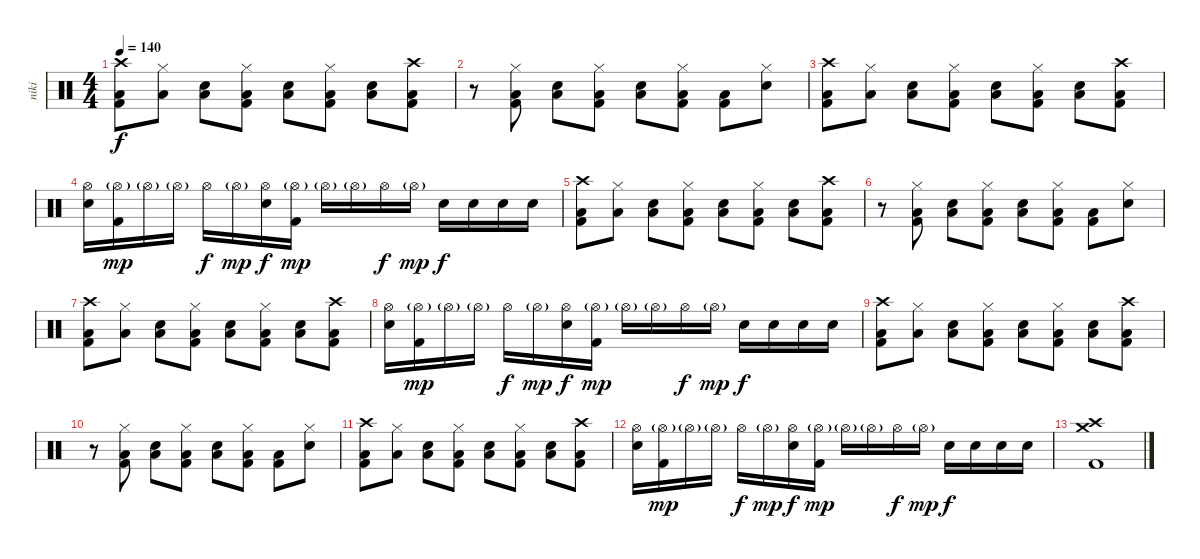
\track ("niki" "niki") {instrument percussion}
\staff {score}
\articulation defaults
\ts (4 4)
\tempo 140
\clef neutral
\ks c
("Crash high (hit)" "Low Floor Tom (hit)" "Kick (hit) 2").8{dy f} ("Hi-Hat (closed)" "Low Floor Tom (hit)").8 ("Low Floor Tom (hit)" "Snare (hit) 2").8 ("Hi-Hat (closed)" "Low Floor Tom (hit)" "Kick (hit) 2").8 ("Low Floor Tom (hit)" "Snare (hit) 2").8 ("Hi-Hat (closed)" "Low Floor Tom (hit)" "Kick (hit) 2").8 ("Low Floor Tom (hit)" "Snare (hit) 2").8 ("Crash high (hit)" "Low Floor Tom (hit)" "Kick (hit) 2").8 |
r.8 ("Hi-Hat (closed)" "Low Floor Tom (hit)" "Kick (hit) 2").8 ("Low Floor Tom (hit)" "Snare (hit) 2").8 ("Hi-Hat (closed)" "Low Floor Tom (hit)" "Kick (hit) 2").8 ("Low Floor Tom (hit)" "Snare (hit) 2").8 ("Hi-Hat (closed)" "Low Floor Tom (hit)" "Kick (hit) 2").8 ("Low Floor Tom (hit)" "Kick (hit) 2").8 ("Hi-Hat (closed)" "Snare (hit) 2").8 |
("Crash high (hit)" "Low Floor Tom (hit)" "Kick (hit) 2").8 ("Hi-Hat (closed)" "Low Floor Tom (hit)").8 ("Low Floor Tom (hit)" "Snare (hit) 2").8 ("Hi-Hat (closed)" "Low Floor Tom (hit)" "Kick (hit) 2").8 ("Low Floor Tom (hit)" "Snare (hit) 2").8 ("Hi-Hat (closed)" "Low Floor Tom (hit)" "Kick (hit) 2").8 ("Low Floor Tom (hit)" "Snare (hit) 2").8 ("Crash high (hit)" "Low Floor Tom (hit)" "Kick (hit) 2").8 |
("Hi-Hat (open)" "Snare (hit) 2").16 ("Hi-Hat (open)"{g} "Kick (hit) 2").16{dy mp} "Hi-Hat (open)"{g}.16 "Hi-Hat (open)"{g}.16 "Hi-Hat (open)".16{dy f} "Hi-Hat (open)"{g}.16{dy mp} ("Hi-Hat (open)" "Snare (hit) 2").16{dy f} ("Hi-Hat (open)"{g} "Kick (hit) 2").16{dy mp} "Hi-Hat (open)"{g}.16 "Hi-Hat (open)"{g}.16 "Hi-Hat (open)".16{dy f} "Hi-Hat (open)"{g}.16{dy mp} "Snare (hit) 2".16{dy f} "Snare (hit) 2".16 "Snare (hit) 2".16 "Snare (hit) 2".16 |
("Crash high (hit)" "Low Floor Tom (hit)" "Kick (hit) 2").8 ("Hi-Hat (closed)" "Low Floor Tom (hit)").8 ("Low Floor Tom (hit)" "Snare (hit) 2").8 ("Hi-Hat (closed)" "Low Floor Tom (hit)" "Kick (hit) 2").8 ("Low Floor Tom (hit)" "Snare (hit) 2").8 ("Hi-Hat (closed)" "Low Floor Tom (hit)" "Kick (hit) 2").8 ("Low Floor Tom (hit)" "Snare (hit) 2").8 ("Crash high (hit)" "Low Floor Tom (hit)" "Kick (hit) 2").8 |
r.8 ("Hi-Hat (closed)" "Low Floor Tom (hit)" "Kick (hit) 2").8 ("Low Floor Tom (hit)" "Snare (hit) 2").8 ("Hi-Hat (closed)" "Low Floor Tom (hit)" "Kick (hit) 2").8 ("Low Floor Tom (hit)" "Snare (hit) 2").8 ("Hi-Hat (closed)" "Low Floor Tom (hit)" "Kick (hit) 2").8 ("Low Floor Tom (hit)" "Kick (hit) 2").8 ("Hi-Hat (closed)" "Snare (hit) 2").8 |
("Crash high (hit)" "Low Floor Tom (hit)" "Kick (hit) 2").8 ("Hi-Hat (closed)" "Low Floor Tom (hit)").8 ("Low Floor Tom (hit)" "Snare (hit) 2").8 ("Hi-Hat (closed)" "Low Floor Tom (hit)" "Kick (hit) 2").8 ("Low Floor Tom (hit)" "Snare (hit) 2").8 ("Hi-Hat (closed)" "Low Floor Tom (hit)" "Kick (hit) 2").8 ("Low Floor Tom (hit)" "Snare (hit) 2").8 ("Crash high (hit)" "Low Floor Tom (hit)" "Kick (hit) 2").8 |
("Hi-Hat (open)" "Snare (hit) 2").16 ("Hi-Hat (open)"{g} "Kick (hit) 2").16{dy mp} "Hi-Hat (open)"{g}.16 "Hi-Hat (open)"{g}.16 "Hi-Hat (open)".16{dy f} "Hi-Hat (open)"{g}.16{dy mp} ("Hi-Hat (open)" "Snare (hit) 2").16{dy f} ("Hi-Hat (open)"{g} "Kick (hit) 2").16{dy mp} "Hi-Hat (open)"{g}.16 "Hi-Hat (open)"{g}.16 "Hi-Hat (open)".16{dy f} "Hi-Hat (open)"{g}.16{dy mp} "Snare (hit) 2".16{dy f} "Snare (hit) 2".16 "Snare (hit) 2".16 "Snare (hit) 2".16 |
("Crash high (hit)" "Low Floor Tom (hit)" "Kick (hit) 2").8 ("Hi-Hat (closed)" "Low Floor Tom (hit)").8 ("Low Floor Tom (hit)" "Snare (hit) 2").8 ("Hi-Hat (closed)" "Low Floor Tom (hit)" "Kick (hit) 2").8 ("Low Floor Tom (hit)" "Snare (hit) 2").8 ("Hi-Hat (closed)" "Low Floor Tom (hit)" "Kick (hit) 2").8 ("Low Floor Tom (hit)" "Snare (hit) 2").8 ("Crash high (hit)" "Low Floor Tom (hit)" "Kick (hit) 2").8 |
r.8 ("Hi-Hat (closed)" "Low Floor Tom (hit)" "Kick (hit) 2").8 ("Low Floor Tom (hit)" "Snare (hit) 2").8 ("Hi-Hat (closed)" "Low Floor Tom (hit)" "Kick (hit) 2").8 ("Low Floor Tom (hit)" "Snare (hit) 2").8 ("Hi-Hat (closed)" "Low Floor Tom (hit)" "Kick (hit) 2").8 ("Low Floor Tom (hit)" "Kick (hit) 2").8 ("Hi-Hat (closed)" "Snare (hit) 2").8 |
("Crash high (hit)" "Low Floor Tom (hit)" "Kick (hit) 2").8 ("Hi-Hat (closed)" "Low Floor Tom (hit)").8 ("Low Floor Tom (hit)" "Snare (hit) 2").8 ("Hi-Hat (closed)" "Low Floor Tom (hit)" "Kick (hit) 2").8 ("Low Floor Tom (hit)" "Snare (hit) 2").8 ("Hi-Hat (closed)" "Low Floor Tom (hit)" "Kick (hit) 2").8 ("Low Floor Tom (hit)" "Snare (hit) 2").8 ("Crash high (hit)" "Low Floor Tom (hit)" "Kick (hit) 2").8 |
("Hi-Hat (open)" "Snare (hit) 2").16 ("Hi-Hat (open)"{g} "Kick (hit) 2").16{dy mp} "Hi-Hat (open)"{g}.16 "Hi-Hat (open)"{g}.16 "Hi-Hat (open)".16{dy f} "Hi-Hat (open)"{g}.16{dy mp} ("Hi-Hat (open)" "Snare (hit) 2").16{dy f} ("Hi-Hat (open)"{g} "Kick (hit) 2").16{dy mp} "Hi-Hat (open)"{g}.16 "Hi-Hat (open)"{g}.16 "Hi-Hat (open)".16{dy f} "Hi-Hat (open)"{g}.16{dy mp} "Snare (hit) 2".16{dy f} "Snare (hit) 2".16 "Snare (hit) 2".16 "Snare (hit) 2".16 |
("Crash high (hit)" "Crash medium (hit)" "Kick (hit) 2").1
